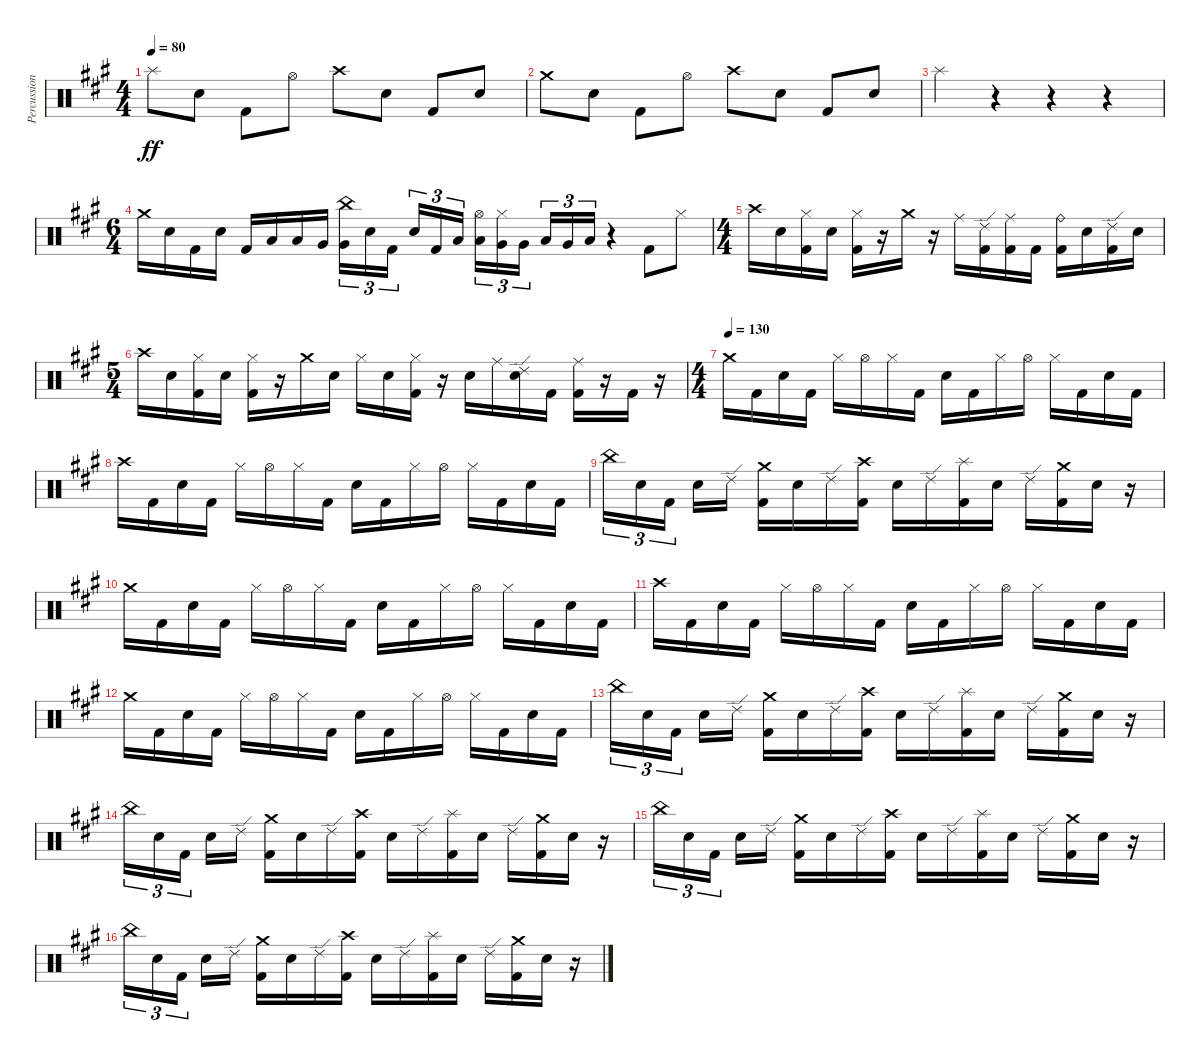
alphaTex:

\track ("Percussion" "Percussion") {instrument percussion}
\staff {score}
\articulation defaults
\ts (4 4)
\tempo 80
\clef neutral
\ks a "Splash (hit)".8{dy ff} "Electric Snare (hit)".8 "Kick (hit) 2".8 "Hi-Hat (open)".8 "Crash high (hit)".8 "Electric Snare (hit)".8 "Kick (hit) 2".8 "Electric Snare (hit)".8
|
"Crash medium (hit)".8 "Electric Snare (hit)".8 "Kick (hit) 2".8 "Hi-Hat (open)".8 "Crash high (hit)".8 "Electric Snare (hit)".8 "Kick (hit) 2".8 "Electric Snare (hit)".8 |
"Splash (hit)".4 r.4 r.4 r.4 |
\ts (6 4)
"Crash medium (hit)".16 "Electric Snare (hit)".16 "Kick (hit) 2".16 "Electric Snare (hit)".16 "Kick (hit) 2".16 "Low Tom (hit)".16 "Low Tom (hit)".16 "Very Low Tom (hit)".16{beam splitsecondary} ("China (hit)" "Very Low Tom (hit)").16{tu (3 2)} "Electric Snare (hit)".16{tu (3 2)} "Kick (hit) 2".16{tu (3 2) beam splitsecondary} "Electric Snare (hit)".16{tu (3 2)} "Kick (hit) 2".16{tu (3 2)} "Low Floor Tom (hit)".16{tu (3 2)} ("Hi-Hat (open)" "Low Floor Tom (hit)").16{tu (3 2)} ("Hi-Hat (closed)" "Very Low Tom (hit)").16{tu (3 2)} "Very Low Tom (hit)".16{tu (3 2) beam splitsecondary} "Low Tom (hit)".16{tu (3 2)} "Very Low Tom (hit)".16{tu (3 2)} "Low Floor Tom (hit)".16{tu (3 2)} r.4 "Kick (hit) 2".8 "Hi-Hat (closed)".8 |
\ts (4 4)
"Crash high (hit)".16 "Electric Snare (hit)".16 ("Hi-Hat (closed)" "Kick (hit) 2").16 "Electric Snare (hit)".16 ("Hi-Hat (closed)" "Kick (hit) 2").16 r.16 "Crash medium (hit)".16 r.16 "Ride (middle)".16 ("Ride (edge) 2" "Kick (hit) 2").16 ("Ride (middle)" "Kick (hit) 2").16 "Kick (hit) 2".16 ("Ride (bell)" "Kick (hit) 2").16 "Electric Snare (hit)".16 ("Ride (edge) 2" "Kick (hit) 2").16 "Electric Snare (hit)".16 |
\ts (5 4)
"Crash high (hit)".16 "Electric Snare (hit)".16 ("Hi-Hat (closed)" "Kick (hit) 2").16 "Electric Snare (hit)".16 ("Hi-Hat (closed)" "Kick (hit) 2").16 r.16 "Crash medium (hit)".16 "Electric Snare (hit)".16 "Hi-Hat (closed)".16 "Electric Snare (hit)".16 ("Hi-Hat (closed)" "Kick (hit) 2").16 r.16 "Electric Snare (hit)".16 "Ride (middle)".16 ("Ride (edge) 2" "Electric Snare (hit)").16 "Kick (hit) 2".16 ("Ride (middle)" "Kick (hit) 2").16 r.16 "Kick (hit) 2".16 r.16 |
\ts (4 4)
\tempo (130)
"Crash medium (hit)".16 "Kick (hit) 2".16 "Electric Snare (hit)".16 "Kick (hit) 2".16 "Hi-Hat (closed)".16 "Hi-Hat (open)".16 "Hi-Hat (closed)".16 "Kick (hit) 2".16 "Electric Snare (hit)".16 "Kick (hit) 2".16 "Hi-Hat (closed)".16 "Hi-Hat (open)".16 "Hi-Hat (closed)".16 "Kick (hit) 2".16 "Electric Snare (hit)".16 "Kick (hit) 2".16 |
"Crash high (hit)".16 "Kick (hit) 2".16 "Electric Snare (hit)".16 "Kick (hit) 2".16 "Hi-Hat (closed)".16 "Hi-Hat (open)".16 "Hi-Hat (closed)".16 "Kick (hit) 2".16 "Electric Snare (hit)".16 "Kick (hit) 2".16 "Hi-Hat (closed)".16 "Hi-Hat (open)".16 "Hi-Hat (closed)".16 "Kick (hit) 2".16 "Electric Snare (hit)".16 "Kick (hit) 2".16 |
"China (hit)".16{tu (3 2)} "Electric Snare (hit)".16{tu (3 2)} "Kick (hit) 2".16{tu (3 2) beam splitsecondary} "Electric Snare (hit)".16 "Ride (edge) 2".16 ("Crash medium (hit)" "Kick (hit) 2").16 "Electric Snare (hit)".16 "Ride (edge) 2".16 ("Crash high (hit)" "Kick (hit) 2").16 "Electric Snare (hit)".16 "Ride (edge) 2".16 ("Splash (hit)" "Kick (hit) 2").16 "Electric Snare (hit)".16 "Ride (edge) 2".16 ("Crash medium (hit)" "Kick (hit) 2").16 "Electric Snare (hit)".16 r.16 |
"Crash medium (hit)".16 "Kick (hit) 2".16 "Electric Snare (hit)".16 "Kick (hit) 2".16 "Hi-Hat (closed)".16 "Hi-Hat (open)".16 "Hi-Hat (closed)".16 "Kick (hit) 2".16 "Electric Snare (hit)".16 "Kick (hit) 2".16 "Hi-Hat (closed)".16 "Hi-Hat (open)".16 "Hi-Hat (closed)".16 "Kick (hit) 2".16 "Electric Snare (hit)".16 "Kick (hit) 2".16 |
"Crash high (hit)".16 "Kick (hit) 2".16 "Electric Snare (hit)".16 "Kick (hit) 2".16 "Hi-Hat (closed)".16 "Hi-Hat (open)".16 "Hi-Hat (closed)".16 "Kick (hit) 2".16 "Electric Snare (hit)".16 "Kick (hit) 2".16 "Hi-Hat (closed)".16 "Hi-Hat (open)".16 "Hi-Hat (closed)".16 "Kick (hit) 2".16 "Electric Snare (hit)".16 "Kick (hit) 2".16 |
"Crash medium (hit)".16 "Kick (hit) 2".16 "Electric Snare (hit)".16 "Kick (hit) 2".16 "Hi-Hat (closed)".16 "Hi-Hat (open)".16 "Hi-Hat (closed)".16 "Kick (hit) 2".16 "Electric Snare (hit)".16 "Kick (hit) 2".16 "Hi-Hat (closed)".16 "Hi-Hat (open)".16 "Hi-Hat (closed)".16 "Kick (hit) 2".16 "Electric Snare (hit)".16 "Kick (hit) 2".16 |
"China (hit)".16{tu (3 2)} "Electric Snare (hit)".16{tu (3 2)} "Kick (hit) 2".16{tu (3 2) beam splitsecondary} "Electric Snare (hit)".16 "Ride (edge) 2".16 ("Crash medium (hit)" "Kick (hit) 2").16 "Electric Snare (hit)".16 "Ride (edge) 2".16 ("Crash high (hit)" "Kick (hit) 2").16 "Electric Snare (hit)".16 "Ride (edge) 2".16 ("Splash (hit)" "Kick (hit) 2").16 "Electric Snare (hit)".16 "Ride (edge) 2".16 ("Crash medium (hit)" "Kick (hit) 2").16 "Electric Snare (hit)".16 r.16 |
"China (hit)".16{tu (3 2)} "Electric Snare (hit)".16{tu (3 2)} "Kick (hit) 2".16{tu (3 2) beam splitsecondary} "Electric Snare (hit)".16 "Ride (edge) 2".16 ("Crash medium (hit)" "Kick (hit) 2").16 "Electric Snare (hit)".16 "Ride (edge) 2".16 ("Crash high (hit)" "Kick (hit) 2").16 "Electric Snare (hit)".16 "Ride (edge) 2".16 ("Splash (hit)" "Kick (hit) 2").16 "Electric Snare (hit)".16 "Ride (edge) 2".16 ("Crash medium (hit)" "Kick (hit) 2").16 "Electric Snare (hit)".16 r.16 |
"China (hit)".16{tu (3 2)} "Electric Snare (hit)".16{tu (3 2)} "Kick (hit) 2".16{tu (3 2) beam splitsecondary} "Electric Snare (hit)".16 "Ride (edge) 2".16 ("Crash medium (hit)" "Kick (hit) 2").16 "Electric Snare (hit)".16 "Ride (edge) 2".16 ("Crash high (hit)" "Kick (hit) 2").16 "Electric Snare (hit)".16 "Ride (edge) 2".16 ("Splash (hit)" "Kick (hit) 2").16 "Electric Snare (hit)".16 "Ride (edge) 2".16 ("Crash medium (hit)" "Kick (hit) 2").16 "Electric Snare (hit)".16 r.16 |
"China (hit)".16{tu (3 2)} "Electric Snare (hit)".16{tu (3 2)} "Kick (hit) 2".16{tu (3 2) beam splitsecondary} "Electric Snare (hit)".16 "Ride (edge) 2".16 ("Crash medium (hit)" "Kick (hit) 2").16 "Electric Snare (hit)".16 "Ride (edge) 2".16 ("Crash high (hit)" "Kick (hit) 2").16 "Electric Snare (hit)".16 "Ride (edge) 2".16 ("Splash (hit)" "Kick (hit) 2").16 "Electric Snare (hit)".16 "Ride (edge) 2".16 ("Crash medium (hit)" "Kick (hit) 2").16 "Electric Snare (hit)".16 r.16
